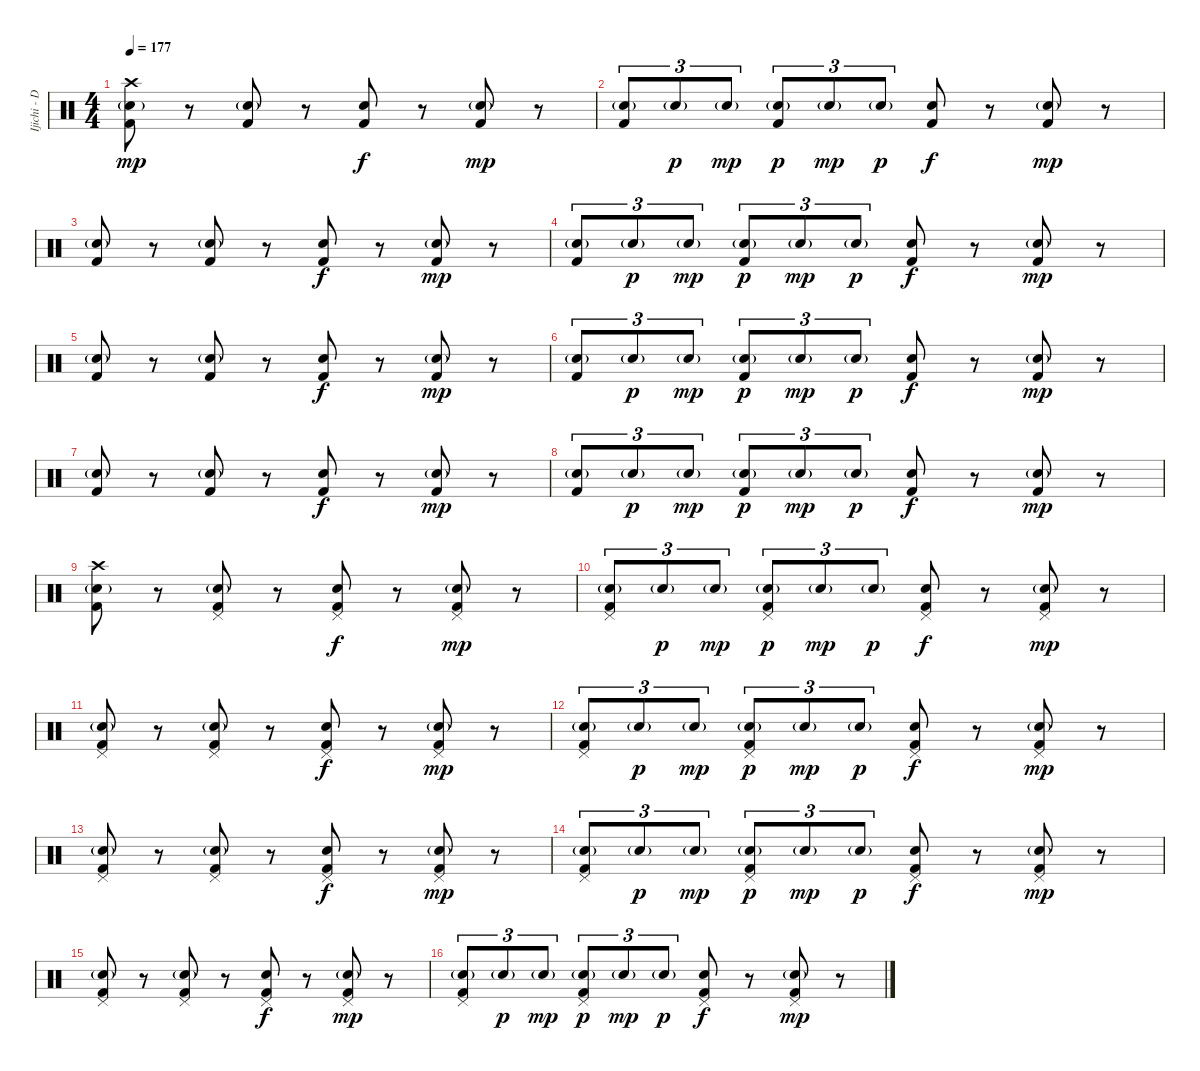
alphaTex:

\track ("Ijichi - Drums" "Ijichi - D") {instrument percussion}
\staff {score}
\articulation defaults
\ts (4 4)
\tempo 177
\clef neutral
\ks c
("Crash high (hit)" "Snare (hit) 2"{g} "Kick (hit) 2").8{dy mp} r.8 ("Snare (hit) 2"{g} "Kick (hit) 2").8 r.8 ("Snare (hit) 2" "Kick (hit) 2").8{dy f} r.8 ("Snare (hit) 2"{g} "Kick (hit) 2").8{dy mp} r.8 |
("Snare (hit) 2"{g} "Kick (hit) 2").8{tu (3 2)} "Snare (hit) 2"{g}.8{tu (3 2) dy p} "Snare (hit) 2"{g}.8{tu (3 2) dy mp} ("Snare (hit) 2"{g} "Kick (hit) 2").8{tu (3 2) dy p} "Snare (hit) 2"{g}.8{tu (3 2) dy mp} "Snare (hit) 2"{g}.8{tu (3 2) dy p} ("Snare (hit) 2" "Kick (hit) 2").8{dy f} r.8 ("Snare (hit) 2"{g} "Kick (hit) 2").8{dy mp} r.8 |
("Snare (hit) 2"{g} "Kick (hit) 2").8 r.8 ("Snare (hit) 2"{g} "Kick (hit) 2").8 r.8 ("Snare (hit) 2" "Kick (hit) 2").8{dy f} r.8 ("Snare (hit) 2"{g} "Kick (hit) 2").8{dy mp} r.8 |
("Snare (hit) 2"{g} "Kick (hit) 2").8{tu (3 2)} "Snare (hit) 2"{g}.8{tu (3 2) dy p} "Snare (hit) 2"{g}.8{tu (3 2) dy mp} ("Snare (hit) 2"{g} "Kick (hit) 2").8{tu (3 2) dy p} "Snare (hit) 2"{g}.8{tu (3 2) dy mp} "Snare (hit) 2"{g}.8{tu (3 2) dy p} ("Snare (hit) 2" "Kick (hit) 2").8{dy f} r.8 ("Snare (hit) 2"{g} "Kick (hit) 2").8{dy mp} r.8 |
("Snare (hit) 2"{g} "Kick (hit) 2").8 r.8 ("Snare (hit) 2"{g} "Kick (hit) 2").8 r.8 ("Snare (hit) 2" "Kick (hit) 2").8{dy f} r.8 ("Snare (hit) 2"{g} "Kick (hit) 2").8{dy mp} r.8 |
("Snare (hit) 2"{g} "Kick (hit) 2").8{tu (3 2)} "Snare (hit) 2"{g}.8{tu (3 2) dy p} "Snare (hit) 2"{g}.8{tu (3 2) dy mp} ("Snare (hit) 2"{g} "Kick (hit) 2").8{tu (3 2) dy p} "Snare (hit) 2"{g}.8{tu (3 2) dy mp} "Snare (hit) 2"{g}.8{tu (3 2) dy p} ("Snare (hit) 2" "Kick (hit) 2").8{dy f} r.8 ("Snare (hit) 2"{g} "Kick (hit) 2").8{dy mp} r.8 |
("Snare (hit) 2"{g} "Kick (hit) 2").8 r.8 ("Snare (hit) 2"{g} "Kick (hit) 2").8 r.8 ("Snare (hit) 2" "Kick (hit) 2").8{dy f} r.8 ("Snare (hit) 2"{g} "Kick (hit) 2").8{dy mp} r.8 |
("Snare (hit) 2"{g} "Kick (hit) 2").8{tu (3 2)} "Snare (hit) 2"{g}.8{tu (3 2) dy p} "Snare (hit) 2"{g}.8{tu (3 2) dy mp} ("Snare (hit) 2"{g} "Kick (hit) 2").8{tu (3 2) dy p} "Snare (hit) 2"{g}.8{tu (3 2) dy mp} "Snare (hit) 2"{g}.8{tu (3 2) dy p} ("Snare (hit) 2" "Kick (hit) 2").8{dy f} r.8 ("Snare (hit) 2"{g} "Kick (hit) 2").8{dy mp} r.8 |
("Crash high (hit)" "Snare (hit) 2"{g} "Kick (hit) 2").8 r.8 ("Pedal Hi-Hat (hit)" "Snare (hit) 2"{g} "Kick (hit) 2").8 r.8 ("Pedal Hi-Hat (hit)" "Snare (hit) 2" "Kick (hit) 2").8{dy f} r.8 ("Pedal Hi-Hat (hit)" "Snare (hit) 2"{g} "Kick (hit) 2").8{dy mp} r.8 |
("Pedal Hi-Hat (hit)" "Snare (hit) 2"{g} "Kick (hit) 2").8{tu (3 2)} "Snare (hit) 2"{g}.8{tu (3 2) dy p} "Snare (hit) 2"{g}.8{tu (3 2) dy mp} ("Pedal Hi-Hat (hit)" "Snare (hit) 2"{g} "Kick (hit) 2").8{tu (3 2) dy p} "Snare (hit) 2"{g}.8{tu (3 2) dy mp} "Snare (hit) 2"{g}.8{tu (3 2) dy p} ("Pedal Hi-Hat (hit)" "Snare (hit) 2" "Kick (hit) 2").8{dy f} r.8 ("Pedal Hi-Hat (hit)" "Snare (hit) 2"{g} "Kick (hit) 2").8{dy mp} r.8 |
("Pedal Hi-Hat (hit)" "Snare (hit) 2"{g} "Kick (hit) 2").8 r.8 ("Pedal Hi-Hat (hit)" "Snare (hit) 2"{g} "Kick (hit) 2").8 r.8 ("Pedal Hi-Hat (hit)" "Snare (hit) 2" "Kick (hit) 2").8{dy f} r.8 ("Pedal Hi-Hat (hit)" "Snare (hit) 2"{g} "Kick (hit) 2").8{dy mp} r.8 |
("Pedal Hi-Hat (hit)" "Snare (hit) 2"{g} "Kick (hit) 2").8{tu (3 2)} "Snare (hit) 2"{g}.8{tu (3 2) dy p} "Snare (hit) 2"{g}.8{tu (3 2) dy mp} ("Pedal Hi-Hat (hit)" "Snare (hit) 2"{g} "Kick (hit) 2").8{tu (3 2) dy p} "Snare (hit) 2"{g}.8{tu (3 2) dy mp} "Snare (hit) 2"{g}.8{tu (3 2) dy p} ("Pedal Hi-Hat (hit)" "Snare (hit) 2" "Kick (hit) 2").8{dy f} r.8 ("Pedal Hi-Hat (hit)" "Snare (hit) 2"{g} "Kick (hit) 2").8{dy mp} r.8 |
("Pedal Hi-Hat (hit)" "Snare (hit) 2"{g} "Kick (hit) 2").8 r.8 ("Pedal Hi-Hat (hit)" "Snare (hit) 2"{g} "Kick (hit) 2").8 r.8 ("Pedal Hi-Hat (hit)" "Snare (hit) 2" "Kick (hit) 2").8{dy f} r.8 ("Pedal Hi-Hat (hit)" "Snare (hit) 2"{g} "Kick (hit) 2").8{dy mp} r.8 |
("Pedal Hi-Hat (hit)" "Snare (hit) 2"{g} "Kick (hit) 2").8{tu (3 2)} "Snare (hit) 2"{g}.8{tu (3 2) dy p} "Snare (hit) 2"{g}.8{tu (3 2) dy mp} ("Pedal Hi-Hat (hit)" "Snare (hit) 2"{g} "Kick (hit) 2").8{tu (3 2) dy p} "Snare (hit) 2"{g}.8{tu (3 2) dy mp} "Snare (hit) 2"{g}.8{tu (3 2) dy p} ("Pedal Hi-Hat (hit)" "Snare (hit) 2" "Kick (hit) 2").8{dy f} r.8 ("Pedal Hi-Hat (hit)" "Snare (hit) 2"{g} "Kick (hit) 2").8{dy mp} r.8 |
("Pedal Hi-Hat (hit)" "Snare (hit) 2"{g} "Kick (hit) 2").8 r.8 ("Pedal Hi-Hat (hit)" "Snare (hit) 2"{g} "Kick (hit) 2").8 r.8 ("Pedal Hi-Hat (hit)" "Snare (hit) 2" "Kick (hit) 2").8{dy f} r.8 ("Pedal Hi-Hat (hit)" "Snare (hit) 2"{g} "Kick (hit) 2").8{dy mp} r.8 |
("Pedal Hi-Hat (hit)" "Snare (hit) 2"{g} "Kick (hit) 2").8{tu (3 2)} "Snare (hit) 2"{g}.8{tu (3 2) dy p} "Snare (hit) 2"{g}.8{tu (3 2) dy mp} ("Pedal Hi-Hat (hit)" "Snare (hit) 2"{g} "Kick (hit) 2").8{tu (3 2) dy p} "Snare (hit) 2"{g}.8{tu (3 2) dy mp} "Snare (hit) 2"{g}.8{tu (3 2) dy p} ("Pedal Hi-Hat (hit)" "Snare (hit) 2" "Kick (hit) 2").8{dy f} r.8 ("Pedal Hi-Hat (hit)" "Snare (hit) 2"{g} "Kick (hit) 2").8{dy mp} r.8
